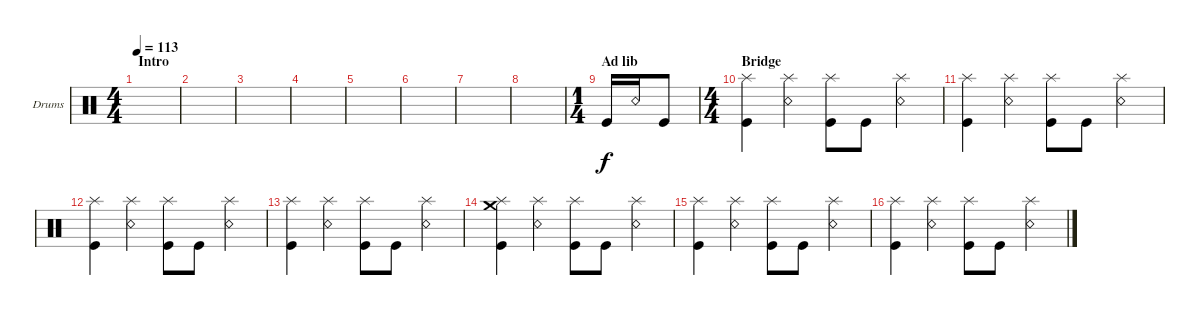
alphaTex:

\defaultSystemsLayout 4
\bracketExtendMode groupsimilarinstruments
\firstSystemTrackNameOrientation horizontal
\otherSystemsTrackNameOrientation horizontal
\track ("Drums" "Drums") {instrument percussion}
\staff {score}
\articulation defaults
\ts (4 4)
\section ("" "Intro")
\tempo 113
\clef neutral
\ks c
|
|
|
|
|
|
|
|
\ts (1 4)
\section ("" "Ad lib")
"Kick (hit)".16 "Snare (rim shot)".16 "Kick (hit)".8 |
\ts (4 4)
\section ("" "Bridge")
("Splash (hit)" "Kick (hit)").4 ("Splash (hit)" "Snare (rim shot)").4 ("Splash (hit)" "Kick (hit)").8 "Kick (hit)".8 ("Splash (hit)" "Snare (rim shot)").4 |
("Splash (hit)" "Kick (hit)").4 ("Splash (hit)" "Snare (rim shot)").4 ("Splash (hit)" "Kick (hit)").8 "Kick (hit)".8 ("Splash (hit)" "Snare (rim shot)").4 |
("Splash (hit)" "Kick (hit)").4 ("Splash (hit)" "Snare (rim shot)").4 ("Splash (hit)" "Kick (hit)").8 "Kick (hit)".8 ("Splash (hit)" "Snare (rim shot)").4 |
("Splash (hit)" "Kick (hit)").4 ("Splash (hit)" "Snare (rim shot)").4 ("Splash (hit)" "Kick (hit)").8 "Kick (hit)".8 ("Splash (hit)" "Snare (rim shot)").4 |
("Splash (hit)" "Kick (hit)" "Crash medium (hit)").4 ("Splash (hit)" "Snare (rim shot)").4 ("Splash (hit)" "Kick (hit)").8 "Kick (hit)".8 ("Splash (hit)" "Snare (rim shot)").4 |
("Splash (hit)" "Kick (hit)").4 ("Splash (hit)" "Snare (rim shot)").4 ("Splash (hit)" "Kick (hit)").8 "Kick (hit)".8 ("Splash (hit)" "Snare (rim shot)").4 |
("Splash (hit)" "Kick (hit)").4 ("Splash (hit)" "Snare (rim shot)").4 ("Splash (hit)" "Kick (hit)").8 "Kick (hit)".8 ("Splash (hit)" "Snare (rim shot)").4
